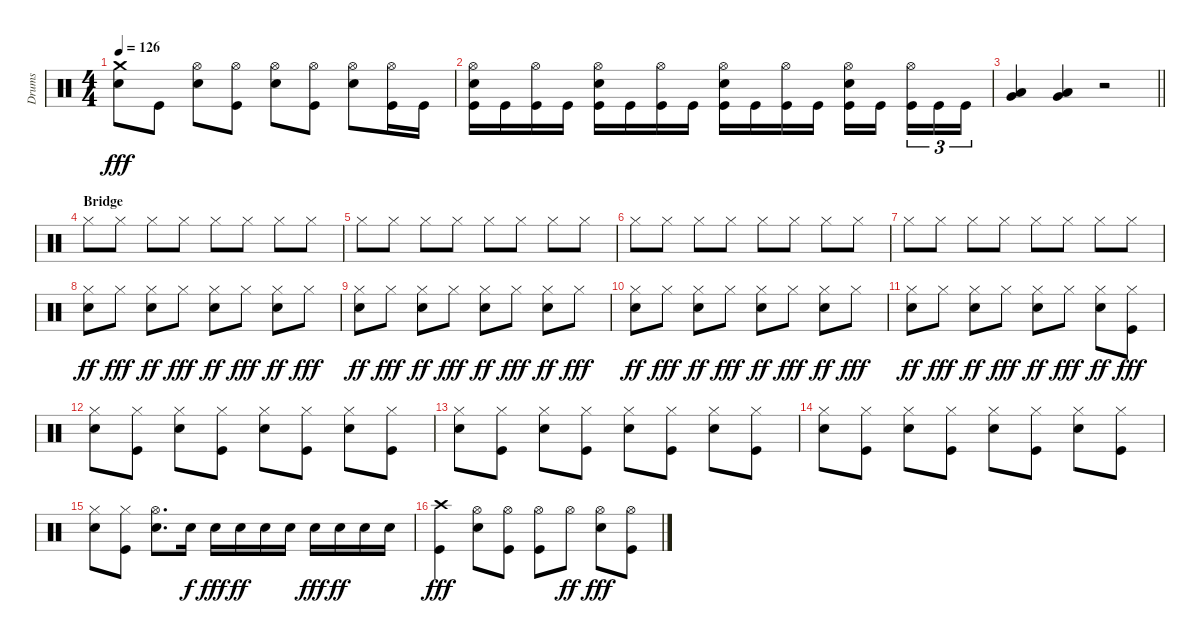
\track ("Drums" "Drums") {instrument percussion}
\staff {score}
\articulation defaults
\ts (4 4)
\tempo 126
\clef neutral
\ks c
("Crash medium (hit)" "Snare (hit) 2").8{dy fff} "Kick (hit)".8 ("Hi-Hat (open)" "Snare (hit) 2").8 ("Hi-Hat (open)" "Kick (hit)").8 ("Hi-Hat (open)" "Snare (hit) 2").8 ("Hi-Hat (open)" "Kick (hit)").8 ("Hi-Hat (open)" "Snare (hit) 2").8 ("Hi-Hat (open)" "Kick (hit)").16 "Kick (hit)".16 |
("Hi-Hat (open)" "Snare (hit) 2" "Kick (hit)").16 "Kick (hit)".16 ("Hi-Hat (open)" "Kick (hit)").16 "Kick (hit)".16 ("Hi-Hat (open)" "Snare (hit) 2" "Kick (hit)").16 "Kick (hit)".16 ("Hi-Hat (open)" "Kick (hit)").16 "Kick (hit)".16 ("Hi-Hat (open)" "Snare (hit) 2" "Kick (hit)").16 "Kick (hit)".16 ("Hi-Hat (open)" "Kick (hit)").16 "Kick (hit)".16 ("Hi-Hat (open)" "Snare (hit) 2" "Kick (hit)").16 "Kick (hit)".16{beam splitsecondary} ("Hi-Hat (open)" "Kick (hit)").16{tu (3 2)} "Kick (hit)".16{tu (3 2)} "Kick (hit)".16{tu (3 2)} |
\barLineRight lightlight
("Very Low Tom (hit)" "Low Floor Tom (hit)").4 ("Very Low Tom (hit)" "Low Floor Tom (hit)").4 r.2 |
\section ("" "Bridge")
"Hi-Hat (closed)".8 "Hi-Hat (closed)".8 "Hi-Hat (closed)".8 "Hi-Hat (closed)".8 "Hi-Hat (closed)".8 "Hi-Hat (closed)".8 "Hi-Hat (closed)".8 "Hi-Hat (closed)".8 |
"Hi-Hat (closed)".8 "Hi-Hat (closed)".8 "Hi-Hat (closed)".8 "Hi-Hat (closed)".8 "Hi-Hat (closed)".8 "Hi-Hat (closed)".8 "Hi-Hat (closed)".8 "Hi-Hat (closed)".8 |
"Hi-Hat (closed)".8 "Hi-Hat (closed)".8 "Hi-Hat (closed)".8 "Hi-Hat (closed)".8 "Hi-Hat (closed)".8 "Hi-Hat (closed)".8 "Hi-Hat (closed)".8 "Hi-Hat (closed)".8 |
"Hi-Hat (closed)".8 "Hi-Hat (closed)".8 "Hi-Hat (closed)".8 "Hi-Hat (closed)".8 "Hi-Hat (closed)".8 "Hi-Hat (closed)".8 "Hi-Hat (closed)".8 "Hi-Hat (closed)".8 |
("Hi-Hat (closed)" "Electric Snare (hit)").8{dy ff} "Hi-Hat (closed)".8{dy fff} ("Hi-Hat (closed)" "Electric Snare (hit)").8{dy ff} "Hi-Hat (closed)".8{dy fff} ("Hi-Hat (closed)" "Electric Snare (hit)").8{dy ff} "Hi-Hat (closed)".8{dy fff} ("Hi-Hat (closed)" "Electric Snare (hit)").8{dy ff} "Hi-Hat (closed)".8{dy fff} |
("Hi-Hat (closed)" "Electric Snare (hit)").8{dy ff} "Hi-Hat (closed)".8{dy fff} ("Hi-Hat (closed)" "Electric Snare (hit)").8{dy ff} "Hi-Hat (closed)".8{dy fff} ("Hi-Hat (closed)" "Electric Snare (hit)").8{dy ff} "Hi-Hat (closed)".8{dy fff} ("Hi-Hat (closed)" "Electric Snare (hit)").8{dy ff} "Hi-Hat (closed)".8{dy fff} |
("Hi-Hat (closed)" "Electric Snare (hit)").8{dy ff} "Hi-Hat (closed)".8{dy fff} ("Hi-Hat (closed)" "Electric Snare (hit)").8{dy ff} "Hi-Hat (closed)".8{dy fff} ("Hi-Hat (closed)" "Electric Snare (hit)").8{dy ff} "Hi-Hat (closed)".8{dy fff} ("Hi-Hat (closed)" "Electric Snare (hit)").8{dy ff} "Hi-Hat (closed)".8{dy fff} |
("Hi-Hat (closed)" "Electric Snare (hit)").8{dy ff} "Hi-Hat (closed)".8{dy fff} ("Hi-Hat (closed)" "Electric Snare (hit)").8{dy ff} "Hi-Hat (closed)".8{dy fff} ("Hi-Hat (closed)" "Electric Snare (hit)").8{dy ff} "Hi-Hat (closed)".8{dy fff} ("Hi-Hat (closed)" "Electric Snare (hit)").8{dy ff} ("Hi-Hat (closed)" "Kick (hit)").8{dy fff} |
("Hi-Hat (closed)" "Electric Snare (hit)").8 ("Hi-Hat (closed)" "Kick (hit)").8 ("Hi-Hat (closed)" "Electric Snare (hit)").8 ("Hi-Hat (closed)" "Kick (hit)").8 ("Hi-Hat (closed)" "Electric Snare (hit)").8 ("Hi-Hat (closed)" "Kick (hit)").8 ("Hi-Hat (closed)" "Electric Snare (hit)").8 ("Hi-Hat (closed)" "Kick (hit)").8 |
("Hi-Hat (closed)" "Electric Snare (hit)").8 ("Hi-Hat (closed)" "Kick (hit)").8 ("Hi-Hat (closed)" "Electric Snare (hit)").8 ("Hi-Hat (closed)" "Kick (hit)").8 ("Hi-Hat (closed)" "Electric Snare (hit)").8 ("Hi-Hat (closed)" "Kick (hit)").8 ("Hi-Hat (closed)" "Electric Snare (hit)").8 ("Hi-Hat (closed)" "Kick (hit)").8 |
("Hi-Hat (closed)" "Electric Snare (hit)").8 ("Hi-Hat (closed)" "Kick (hit)").8 ("Hi-Hat (closed)" "Electric Snare (hit)").8 ("Hi-Hat (closed)" "Kick (hit)").8 ("Hi-Hat (closed)" "Electric Snare (hit)").8 ("Hi-Hat (closed)" "Kick (hit)").8 ("Hi-Hat (closed)" "Electric Snare (hit)").8 ("Hi-Hat (closed)" "Kick (hit)").8 |
("Hi-Hat (closed)" "Electric Snare (hit)").8 ("Hi-Hat (closed)" "Kick (hit)").8 ("Hi-Hat (open)" "Electric Snare (hit)").8{d} "Electric Snare (hit)".16{dy f} "Electric Snare (hit)".16{dy fff} "Electric Snare (hit)".16{dy ff} "Electric Snare (hit)".16 "Electric Snare (hit)".16 "Electric Snare (hit)".16{dy fff} "Electric Snare (hit)".16{dy ff} "Electric Snare (hit)".16 "Electric Snare (hit)".16 |
("Crash high (hit)" "Kick (hit)").4{dy fff} ("Hi-Hat (open)" "Snare (hit) 2").8 ("Hi-Hat (open)" "Kick (hit)").8 ("Hi-Hat (open)" "Kick (hit)").8 "Hi-Hat (open)".8{dy ff} ("Hi-Hat (open)" "Snare (hit) 2").8{dy fff} ("Hi-Hat (open)" "Kick (hit)").8
